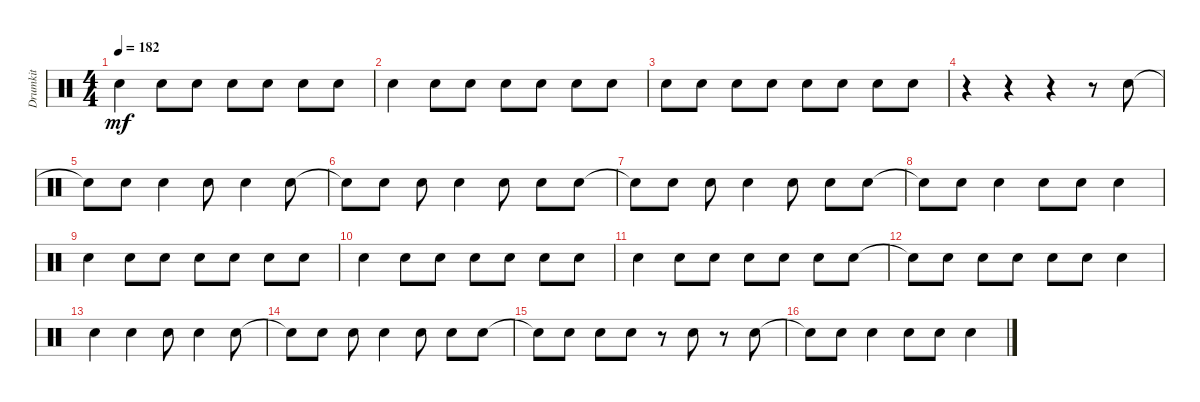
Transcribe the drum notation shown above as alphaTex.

\track ("Drumkit" "Drumkit") {instrument percussion}
\staff {score}
\articulation defaults
\ts (4 4)
\tempo 182
\clef neutral
\ks c "Snare (hit)".4{dy mf} "Snare (hit)".8 "Snare (hit)".8 "Snare (hit)".8 "Snare (hit)".8 "Snare (hit)".8 "Snare (hit)".8
|
"Snare (hit)".4 "Snare (hit)".8 "Snare (hit)".8 "Snare (hit)".8 "Snare (hit)".8 "Snare (hit)".8 "Snare (hit)".8 |
"Snare (hit)".8 "Snare (hit)".8 "Snare (hit)".8 "Snare (hit)".8 "Snare (hit)".8 "Snare (hit)".8 "Snare (hit)".8 "Snare (hit)".8 |
r.4 r.4 r.4 r.8 "Snare (hit)".8 |
"Snare (hit)"{t}.8 "Snare (hit)".8 "Snare (hit)".4 "Snare (hit)".8 "Snare (hit)".4 "Snare (hit)".8 |
"Snare (hit)"{t}.8 "Snare (hit)".8 "Snare (hit)".8 "Snare (hit)".4 "Snare (hit)".8 "Snare (hit)".8 "Snare (hit)".8 |
"Snare (hit)"{t}.8 "Snare (hit)".8 "Snare (hit)".8 "Snare (hit)".4 "Snare (hit)".8 "Snare (hit)".8 "Snare (hit)".8 |
"Snare (hit)"{t}.8 "Snare (hit)".8 "Snare (hit)".4 "Snare (hit)".8 "Snare (hit)".8 "Snare (hit)".4 |
"Snare (hit)".4 "Snare (hit)".8 "Snare (hit)".8 "Snare (hit)".8 "Snare (hit)".8 "Snare (hit)".8 "Snare (hit)".8 |
"Snare (hit)".4 "Snare (hit)".8 "Snare (hit)".8 "Snare (hit)".8 "Snare (hit)".8 "Snare (hit)".8 "Snare (hit)".8 |
"Snare (hit)".4 "Snare (hit)".8 "Snare (hit)".8 "Snare (hit)".8 "Snare (hit)".8 "Snare (hit)".8 "Snare (hit)".8 |
"Snare (hit)"{t}.8 "Snare (hit)".8 "Snare (hit)".8 "Snare (hit)".8 "Snare (hit)".8 "Snare (hit)".8 "Snare (hit)".4 |
"Snare (hit)".4 "Snare (hit)".4 "Snare (hit)".8 "Snare (hit)".4 "Snare (hit)".8 |
"Snare (hit)"{t}.8 "Snare (hit)".8 "Snare (hit)".8 "Snare (hit)".4 "Snare (hit)".8 "Snare (hit)".8 "Snare (hit)".8 |
"Snare (hit)"{t}.8 "Snare (hit)".8 "Snare (hit)".8 "Snare (hit)".8 r.8 "Snare (hit)".8 r.8 "Snare (hit)".8 |
"Snare (hit)"{t}.8 "Snare (hit)".8 "Snare (hit)".4 "Snare (hit)".8 "Snare (hit)".8 "Snare (hit)".4
